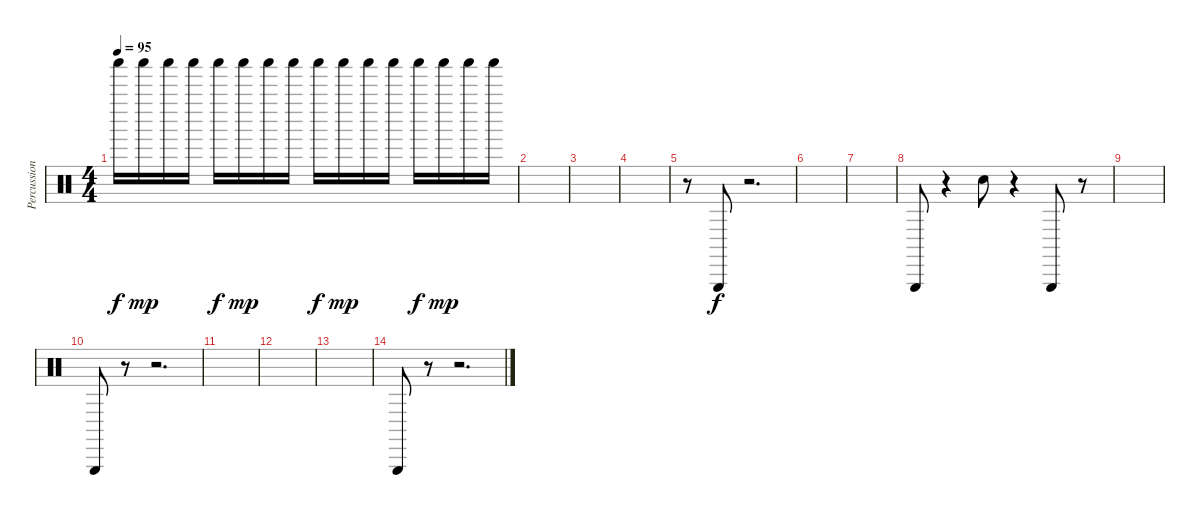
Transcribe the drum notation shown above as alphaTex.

\track ("Percussion" "Percussion") {instrument percussion}
\staff {score}
\articulation defaults
\ts (4 4)
\tempo 95
\clef neutral
\ks c "Shaker (hit)".16{dy f} "Shaker (hit)".16{dy mp} "Shaker (hit)".16 "Shaker (hit)".16 "Shaker (hit)".16{dy f} "Shaker (hit)".16{dy mp} "Shaker (hit)".16 "Shaker (hit)".16 "Shaker (hit)".16{dy f} "Shaker (hit)".16{dy mp} "Shaker (hit)".16 "Shaker (hit)".16 "Shaker (hit)".16{dy f} "Shaker (hit)".16{dy mp} "Shaker (hit)".16 "Shaker (hit)".16
|
|
|
|
r.8 "Triangle (hit)".8{dy f} r.2{d} |
|
|
"Triangle (hit)".8 r.4 "Metronome (bell)".8 r.4 "Triangle (hit)".8 r.8 |
|
"Triangle (hit)".8 r.8 r.2{d} |
|
|
|
"Triangle (hit)".8 r.8 r.2{d}
